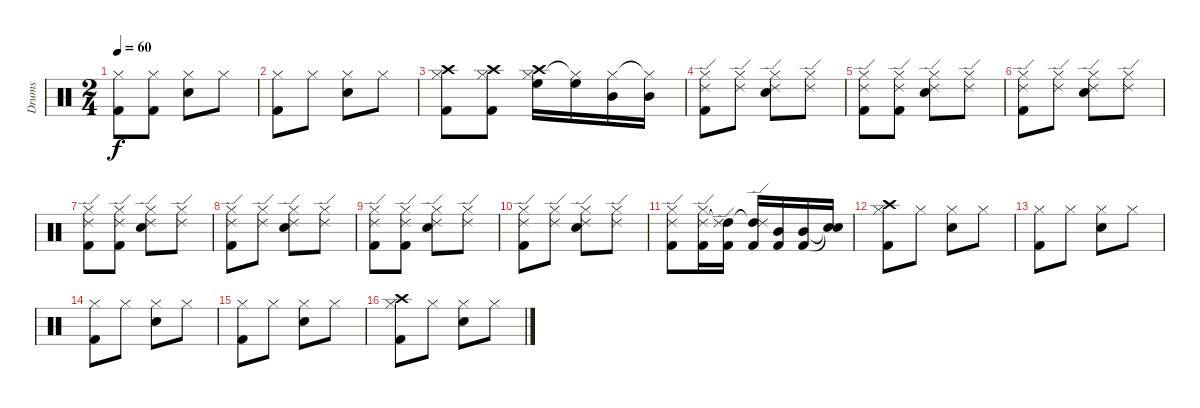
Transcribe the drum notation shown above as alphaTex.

\track ("Drums" "Drums") {instrument percussion}
\staff {score}
\articulation defaults
\ts (2 4)
\tempo 60
\clef neutral
\ks c
("Hi-Hat (closed)" "Kick (hit) 2").8{dy f} ("Hi-Hat (closed)" "Kick (hit) 2").8 ("Hi-Hat (closed)" "Snare (hit) 2").8 "Hi-Hat (closed)".8 |
("Hi-Hat (closed)" "Kick (hit) 2").8 "Hi-Hat (closed)".8 ("Hi-Hat (closed)" "Snare (hit) 2").8 "Hi-Hat (closed)".8 |
("Hi-Hat (closed)" "Kick (hit) 2" "Crash high (hit)").8 ("Hi-Hat (closed)" "Kick (hit) 2" "Crash high (hit)").8 ("Hi-Hat (closed)" "High Floor Tom (hit)" "Crash high (hit)").16 ("Hi-Hat (closed)"{t} "High Floor Tom (hit)").16 ("Hi-Hat (closed)" "Mid Tom (hit)").16 ("Hi-Hat (closed)"{t} "Mid Tom (hit)").16 |
("Hi-Hat (closed)" "Kick (hit) 2" "Ride (edge) 2").8 ("Hi-Hat (closed)" "Ride (edge) 2").8 ("Hi-Hat (closed)" "Snare (hit) 2" "Ride (edge) 2").8 ("Hi-Hat (closed)" "Ride (edge) 2").8 |
("Hi-Hat (closed)" "Kick (hit) 2" "Ride (edge) 2").8 ("Hi-Hat (closed)" "Kick (hit) 2" "Ride (edge) 2").8 ("Hi-Hat (closed)" "Snare (hit) 2" "Ride (edge) 2").8 ("Hi-Hat (closed)" "Ride (edge) 2").8 |
("Hi-Hat (closed)" "Kick (hit) 2" "Ride (edge) 2").8 ("Hi-Hat (closed)" "Ride (edge) 2").8 ("Hi-Hat (closed)" "Snare (hit) 2" "Ride (edge) 2").8 ("Hi-Hat (closed)" "Ride (edge) 2").8 |
("Hi-Hat (closed)" "Kick (hit) 2" "Ride (edge) 2").8 ("Hi-Hat (closed)" "Kick (hit) 2" "Ride (edge) 2").8 ("Hi-Hat (closed)" "Snare (hit) 2" "Ride (edge) 2").8 ("Hi-Hat (closed)" "Ride (edge) 2").8 |
("Hi-Hat (closed)" "Kick (hit) 2" "Ride (edge) 2").8 ("Hi-Hat (closed)" "Ride (edge) 2").8 ("Hi-Hat (closed)" "Snare (hit) 2" "Ride (edge) 2").8 ("Hi-Hat (closed)" "Ride (edge) 2").8 |
("Hi-Hat (closed)" "Kick (hit) 2" "Ride (edge) 2").8 ("Hi-Hat (closed)" "Kick (hit) 2" "Ride (edge) 2").8 ("Hi-Hat (closed)" "Snare (hit) 2" "Ride (edge) 2").8 ("Hi-Hat (closed)" "Ride (edge) 2").8 |
("Hi-Hat (closed)" "Kick (hit) 2" "Ride (edge) 2").8 ("Hi-Hat (closed)" "Ride (edge) 2").8 ("Hi-Hat (closed)" "Snare (hit) 2" "Ride (edge) 2").8 ("Hi-Hat (closed)" "Ride (edge) 2").8 |
("Hi-Hat (closed)" "Kick (hit) 2" "Ride (edge) 2").8 ("Hi-Hat (closed)" "Kick (hit) 2" "Ride (edge) 2").16 ("High Tom (hit)" "Kick (hit) 2" "Ride (edge) 2"{t}).16 ("High Tom (hit)" "Kick (hit) 2" "Ride (edge) 2"{t}).16 ("Mid Tom (hit)" "Kick (hit) 2").16 ("Mid Tom (hit)" "Kick (hit) 2").16 ("Snare (hit)"{t} "Snare (hit)"{t}).16 |
("Hi-Hat (closed)" "Crash high (hit)" "Kick (hit) 2").8 "Hi-Hat (closed)".8 ("Hi-Hat (closed)" "Snare (hit) 2").8 "Hi-Hat (closed)".8 |
("Hi-Hat (closed)" "Kick (hit) 2").8 "Hi-Hat (closed)".8 ("Hi-Hat (closed)" "Snare (hit) 2").8 "Hi-Hat (closed)".8 |
("Hi-Hat (closed)" "Kick (hit) 2").8 "Hi-Hat (closed)".8 ("Hi-Hat (closed)" "Snare (hit) 2").8 "Hi-Hat (closed)".8 |
("Hi-Hat (closed)" "Kick (hit) 2").8 "Hi-Hat (closed)".8 ("Hi-Hat (closed)" "Snare (hit) 2").8 "Hi-Hat (closed)".8 |
("Hi-Hat (closed)" "Crash high (hit)" "Kick (hit) 2").8 "Hi-Hat (closed)".8 ("Hi-Hat (closed)" "Snare (hit) 2").8 "Hi-Hat (closed)".8
